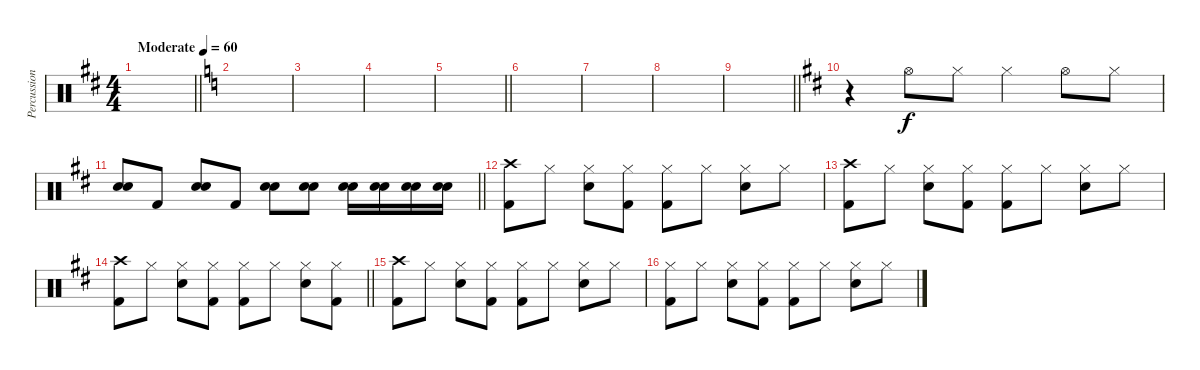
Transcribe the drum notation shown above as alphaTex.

\track ("Percussioni" "Percussion") {instrument percussion}
\staff {score}
\articulation defaults
\ts (4 4)
\tempo (60 "Moderate")
\clef neutral
\barLineRight lightlight
\ks d
|
\ks c
|
|
|
\barLineRight lightlight
|
|
|
|
\barLineRight lightlight
|
\ks d
r.4{volume 16} "Hi-Hat (open)".8 "Hi-Hat (closed)".8 "Hi-Hat (closed)".4 "Hi-Hat (open)".8 "Hi-Hat (closed)".8 |
\barLineRight lightlight
("Electric Snare (hit)" "Snare (hit) 2").8 "Kick (hit) 2".8 ("Electric Snare (hit)" "Snare (hit) 2").8 "Kick (hit) 2".8 ("Electric Snare (hit)" "Snare (hit) 2").8 ("Electric Snare (hit)" "Snare (hit) 2").8 ("Electric Snare (hit)" "Snare (hit) 2").16 ("Electric Snare (hit)" "Snare (hit) 2").16 ("Electric Snare (hit)" "Snare (hit) 2").16 ("Electric Snare (hit)" "Snare (hit) 2").16 |
("Crash high (hit)" "Kick (hit) 2").8 "Hi-Hat (closed)".8 ("Hi-Hat (closed)" "Electric Snare (hit)").8 ("Hi-Hat (closed)" "Kick (hit) 2").8 ("Hi-Hat (closed)" "Kick (hit) 2").8 "Hi-Hat (closed)".8 ("Hi-Hat (closed)" "Electric Snare (hit)").8 "Hi-Hat (closed)".8 |
("Crash high (hit)" "Kick (hit) 2").8 "Hi-Hat (closed)".8 ("Hi-Hat (closed)" "Electric Snare (hit)").8 ("Hi-Hat (closed)" "Kick (hit) 2").8 ("Hi-Hat (closed)" "Kick (hit) 2").8 "Hi-Hat (closed)".8 ("Hi-Hat (closed)" "Electric Snare (hit)").8 "Hi-Hat (closed)".8 |
\barLineRight lightlight
("Crash high (hit)" "Kick (hit) 2").8 "Hi-Hat (closed)".8 ("Hi-Hat (closed)" "Electric Snare (hit)").8 ("Hi-Hat (closed)" "Kick (hit) 2").8 ("Hi-Hat (closed)" "Kick (hit) 2").8 "Hi-Hat (closed)".8 ("Hi-Hat (closed)" "Electric Snare (hit)").8 ("Hi-Hat (closed)" "Kick (hit) 2").8 |
("Crash high (hit)" "Kick (hit) 2").8 "Hi-Hat (closed)".8 ("Hi-Hat (closed)" "Electric Snare (hit)").8 ("Hi-Hat (closed)" "Kick (hit) 2").8 ("Hi-Hat (closed)" "Kick (hit) 2").8 "Hi-Hat (closed)".8 ("Hi-Hat (closed)" "Electric Snare (hit)").8 "Hi-Hat (closed)".8 |
("Hi-Hat (closed)" "Kick (hit) 2").8 "Hi-Hat (closed)".8 ("Hi-Hat (closed)" "Electric Snare (hit)").8 ("Hi-Hat (closed)" "Kick (hit) 2").8 ("Hi-Hat (closed)" "Kick (hit) 2").8 "Hi-Hat (closed)".8 ("Hi-Hat (closed)" "Electric Snare (hit)").8 "Hi-Hat (closed)".8
